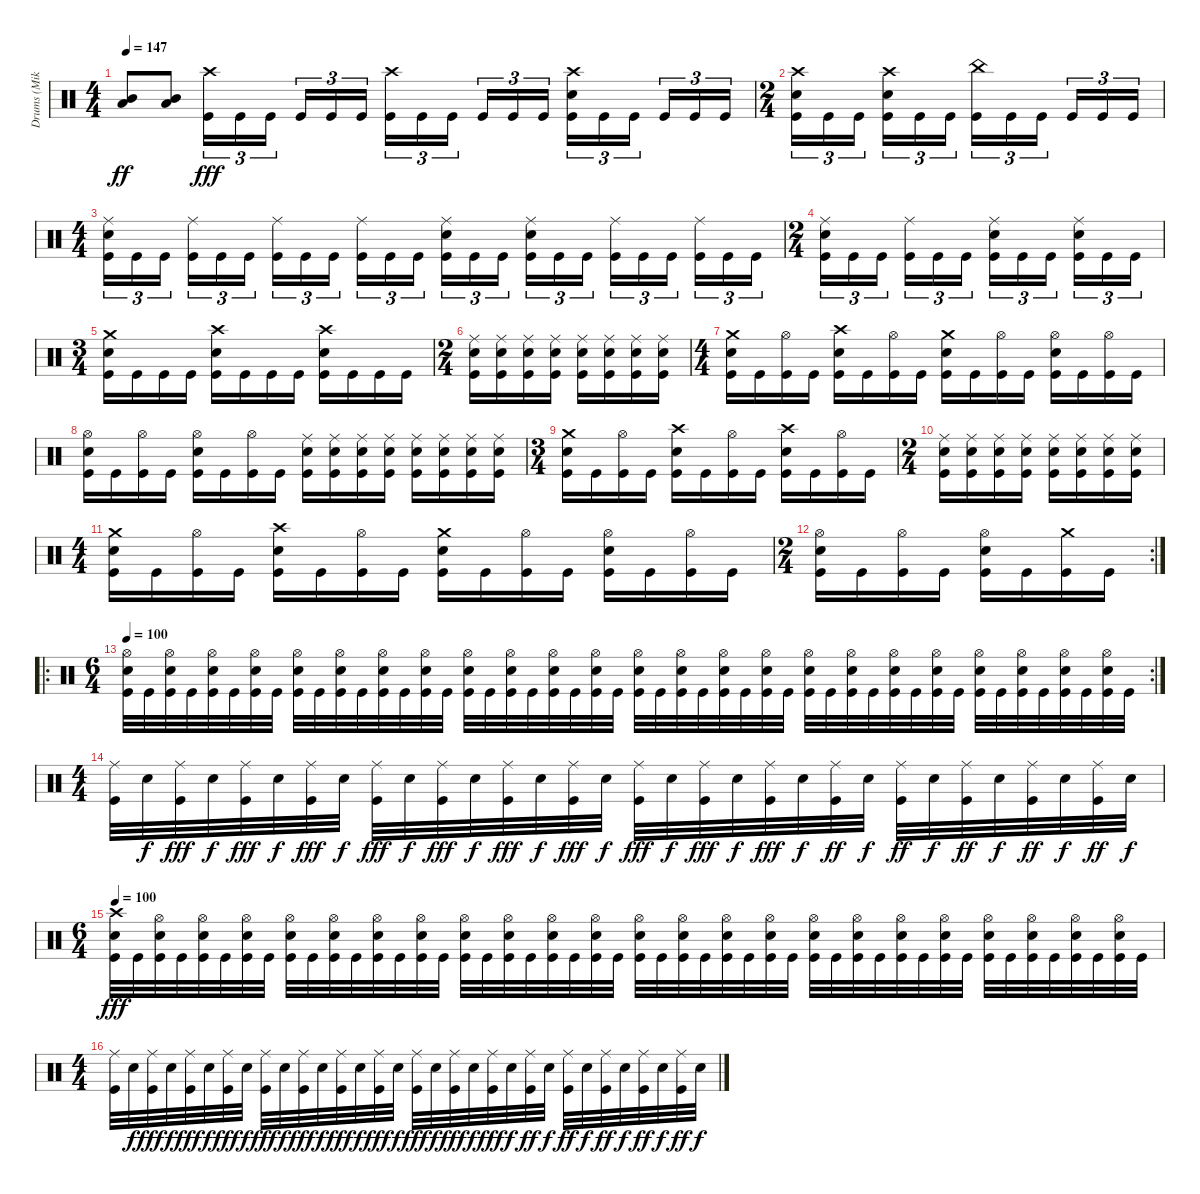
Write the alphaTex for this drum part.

\track ("Drums (Mike)" "Drums (Mik") {instrument percussion}
\staff {score}
\articulation defaults
\ts (4 4)
\tempo 147
\clef neutral
\ks c
("Low Tom (hit)" "Mid Tom (hit)").8{dy ff} ("Low Tom (hit)" "Mid Tom (hit)").8 ("Crash high (hit)" "Kick (hit)").16{tu (3 2) dy fff} "Kick (hit)".16{tu (3 2)} "Kick (hit)".16{tu (3 2)} "Kick (hit)".16{tu (3 2)} "Kick (hit)".16{tu (3 2)} "Kick (hit)".16{tu (3 2)} ("Crash high (hit)" "Kick (hit)").16{tu (3 2)} "Kick (hit)".16{tu (3 2)} "Kick (hit)".16{tu (3 2)} "Kick (hit)".16{tu (3 2)} "Kick (hit)".16{tu (3 2)} "Kick (hit)".16{tu (3 2)} ("Crash high (hit)" "Electric Snare (hit)" "Kick (hit)").16{tu (3 2)} "Kick (hit)".16{tu (3 2)} "Kick (hit)".16{tu (3 2)} "Kick (hit)".16{tu (3 2)} "Kick (hit)".16{tu (3 2)} "Kick (hit)".16{tu (3 2)} |
\ts (2 4)
("Crash high (hit)" "Electric Snare (hit)" "Kick (hit)").16{tu (3 2)} "Kick (hit)".16{tu (3 2)} "Kick (hit)".16{tu (3 2)} ("Crash high (hit)" "Electric Snare (hit)" "Kick (hit)").16{tu (3 2)} "Kick (hit)".16{tu (3 2)} "Kick (hit)".16{tu (3 2)} ("China (hit)" "Kick (hit)").16{tu (3 2)} "Kick (hit)".16{tu (3 2)} "Kick (hit)".16{tu (3 2)} "Kick (hit)".16{tu (3 2)} "Kick (hit)".16{tu (3 2)} "Kick (hit)".16{tu (3 2)} |
\ts (4 4)
("Ride (middle)" "Electric Snare (hit)" "Kick (hit)").16{tu (3 2)} "Kick (hit)".16{tu (3 2)} "Kick (hit)".16{tu (3 2)} ("Ride (middle)" "Kick (hit)").16{tu (3 2)} "Kick (hit)".16{tu (3 2)} "Kick (hit)".16{tu (3 2)} ("Ride (middle)" "Kick (hit)").16{tu (3 2)} "Kick (hit)".16{tu (3 2)} "Kick (hit)".16{tu (3 2)} ("Ride (middle)" "Kick (hit)").16{tu (3 2)} "Kick (hit)".16{tu (3 2)} "Kick (hit)".16{tu (3 2)} ("Ride (middle)" "Electric Snare (hit)" "Kick (hit)").16{tu (3 2)} "Kick (hit)".16{tu (3 2)} "Kick (hit)".16{tu (3 2)} ("Ride (middle)" "Electric Snare (hit)" "Kick (hit)").16{tu (3 2)} "Kick (hit)".16{tu (3 2)} "Kick (hit)".16{tu (3 2)} ("Ride (middle)" "Kick (hit)").16{tu (3 2)} "Kick (hit)".16{tu (3 2)} "Kick (hit)".16{tu (3 2)} ("Ride (middle)" "Kick (hit)").16{tu (3 2)} "Kick (hit)".16{tu (3 2)} "Kick (hit)".16{tu (3 2)} |
\ts (2 4)
("Ride (middle)" "Electric Snare (hit)" "Kick (hit)").16{tu (3 2)} "Kick (hit)".16{tu (3 2)} "Kick (hit)".16{tu (3 2)} ("Ride (middle)" "Kick (hit)").16{tu (3 2)} "Kick (hit)".16{tu (3 2)} "Kick (hit)".16{tu (3 2)} ("Ride (middle)" "Electric Snare (hit)" "Kick (hit)").16{tu (3 2)} "Kick (hit)".16{tu (3 2)} "Kick (hit)".16{tu (3 2)} ("Ride (middle)" "Electric Snare (hit)" "Kick (hit)").16{tu (3 2)} "Kick (hit)".16{tu (3 2)} "Kick (hit)".16{tu (3 2)} |
\ts (3 4)
("Crash medium (hit)" "Electric Snare (hit)" "Kick (hit)").16 "Kick (hit)".16 "Kick (hit)".16 "Kick (hit)".16 ("Crash high (hit)" "Electric Snare (hit)" "Kick (hit)").16 "Kick (hit)".16 "Kick (hit)".16 "Kick (hit)".16 ("Crash high (hit)" "Electric Snare (hit)" "Kick (hit)").16 "Kick (hit)".16 "Kick (hit)".16 "Kick (hit)".16 |
\ts (2 4)
("Ride (middle)" "Electric Snare (hit)" "Kick (hit)").16 ("Ride (middle)" "Electric Snare (hit)" "Kick (hit)").16 ("Ride (middle)" "Electric Snare (hit)" "Kick (hit)").16 ("Ride (middle)" "Electric Snare (hit)" "Kick (hit)").16 ("Ride (middle)" "Electric Snare (hit)" "Kick (hit)").16 ("Ride (middle)" "Electric Snare (hit)" "Kick (hit)").16 ("Ride (middle)" "Electric Snare (hit)" "Kick (hit)").16 ("Ride (middle)" "Electric Snare (hit)" "Kick (hit)").16 |
\ts (4 4)
("Crash medium (hit)" "Electric Snare (hit)" "Kick (hit)").16 "Kick (hit)".16 ("Hi-Hat (open)" "Kick (hit)").16 "Kick (hit)".16 ("Crash high (hit)" "Electric Snare (hit)" "Kick (hit)").16 "Kick (hit)".16 ("Hi-Hat (open)" "Kick (hit)").16 "Kick (hit)".16 ("Crash medium (hit)" "Electric Snare (hit)" "Kick (hit)").16 "Kick (hit)".16 ("Hi-Hat (open)" "Kick (hit)").16 "Kick (hit)".16 ("Hi-Hat (open)" "Electric Snare (hit)" "Kick (hit)").16 "Kick (hit)".16 ("Hi-Hat (open)" "Kick (hit)").16 "Kick (hit)".16 |
("Hi-Hat (open)" "Electric Snare (hit)" "Kick (hit)").16 "Kick (hit)".16 ("Hi-Hat (open)" "Kick (hit)").16 "Kick (hit)".16 ("Hi-Hat (open)" "Electric Snare (hit)" "Kick (hit)").16 "Kick (hit)".16 ("Hi-Hat (open)" "Kick (hit)").16 "Kick (hit)".16 ("Ride (middle)" "Electric Snare (hit)" "Kick (hit)").16 ("Ride (middle)" "Electric Snare (hit)" "Kick (hit)").16 ("Ride (middle)" "Electric Snare (hit)" "Kick (hit)").16 ("Ride (middle)" "Electric Snare (hit)" "Kick (hit)").16 ("Ride (middle)" "Electric Snare (hit)" "Kick (hit)").16 ("Ride (middle)" "Electric Snare (hit)" "Kick (hit)").16 ("Ride (middle)" "Electric Snare (hit)" "Kick (hit)").16 ("Ride (middle)" "Electric Snare (hit)" "Kick (hit)").16 |
\ts (3 4)
("Crash medium (hit)" "Electric Snare (hit)" "Kick (hit)").16 "Kick (hit)".16 ("Hi-Hat (open)" "Kick (hit)").16 "Kick (hit)".16 ("Crash high (hit)" "Electric Snare (hit)" "Kick (hit)").16 "Kick (hit)".16 ("Hi-Hat (open)" "Kick (hit)").16 "Kick (hit)".16 ("Crash high (hit)" "Electric Snare (hit)" "Kick (hit)").16 "Kick (hit)".16 ("Hi-Hat (open)" "Kick (hit)").16 "Kick (hit)".16 |
\ts (2 4)
("Ride (middle)" "Electric Snare (hit)" "Kick (hit)").16 ("Ride (middle)" "Electric Snare (hit)" "Kick (hit)").16 ("Ride (middle)" "Electric Snare (hit)" "Kick (hit)").16 ("Ride (middle)" "Electric Snare (hit)" "Kick (hit)").16 ("Ride (middle)" "Electric Snare (hit)" "Kick (hit)").16 ("Ride (middle)" "Electric Snare (hit)" "Kick (hit)").16 ("Ride (middle)" "Electric Snare (hit)" "Kick (hit)").16 ("Ride (middle)" "Electric Snare (hit)" "Kick (hit)").16 |
\ts (4 4)
("Crash medium (hit)" "Electric Snare (hit)" "Kick (hit)").16 "Kick (hit)".16 ("Hi-Hat (open)" "Kick (hit)").16 "Kick (hit)".16 ("Crash high (hit)" "Electric Snare (hit)" "Kick (hit)").16 "Kick (hit)".16 ("Hi-Hat (open)" "Kick (hit)").16 "Kick (hit)".16 ("Crash medium (hit)" "Electric Snare (hit)" "Kick (hit)").16 "Kick (hit)".16 ("Hi-Hat (open)" "Kick (hit)").16 "Kick (hit)".16 ("Hi-Hat (open)" "Electric Snare (hit)" "Kick (hit)").16 "Kick (hit)".16 ("Hi-Hat (open)" "Kick (hit)").16 "Kick (hit)".16 |
\rc 2
\ts (2 4)
("Hi-Hat (open)" "Electric Snare (hit)" "Kick (hit)").16 "Kick (hit)".16 ("Hi-Hat (open)" "Kick (hit)").16 "Kick (hit)".16 ("Hi-Hat (open)" "Electric Snare (hit)" "Kick (hit)").16 "Kick (hit)".16 ("Crash medium (hit)" "Kick (hit)").16 "Kick (hit)".16 |
\ro
\rc 2
\ts (6 4)
\tempo 100
("Hi-Hat (open)" "Electric Snare (hit)" "Kick (hit)").32 "Kick (hit)".32 ("Hi-Hat (open)" "Electric Snare (hit)" "Kick (hit)").32 "Kick (hit)".32 ("Hi-Hat (open)" "Electric Snare (hit)" "Kick (hit)").32 "Kick (hit)".32 ("Hi-Hat (open)" "Electric Snare (hit)" "Kick (hit)").32 "Kick (hit)".32 ("Hi-Hat (open)" "Electric Snare (hit)" "Kick (hit)").32 "Kick (hit)".32 ("Hi-Hat (open)" "Electric Snare (hit)" "Kick (hit)").32 "Kick (hit)".32 ("Hi-Hat (open)" "Electric Snare (hit)" "Kick (hit)").32 "Kick (hit)".32 ("Hi-Hat (open)" "Electric Snare (hit)" "Kick (hit)").32 "Kick (hit)".32 ("Hi-Hat (open)" "Electric Snare (hit)" "Kick (hit)").32 "Kick (hit)".32 ("Hi-Hat (open)" "Electric Snare (hit)" "Kick (hit)").32 "Kick (hit)".32 ("Hi-Hat (open)" "Electric Snare (hit)" "Kick (hit)").32 "Kick (hit)".32 ("Hi-Hat (open)" "Electric Snare (hit)" "Kick (hit)").32 "Kick (hit)".32 ("Hi-Hat (open)" "Electric Snare (hit)" "Kick (hit)").32 "Kick (hit)".32 ("Hi-Hat (open)" "Electric Snare (hit)" "Kick (hit)").32 "Kick (hit)".32 ("Hi-Hat (open)" "Electric Snare (hit)" "Kick (hit)").32 "Kick (hit)".32 ("Hi-Hat (open)" "Electric Snare (hit)" "Kick (hit)").32 "Kick (hit)".32 ("Hi-Hat (open)" "Electric Snare (hit)" "Kick (hit)").32 "Kick (hit)".32 ("Hi-Hat (open)" "Electric Snare (hit)" "Kick (hit)").32 "Kick (hit)".32 ("Hi-Hat (open)" "Electric Snare (hit)" "Kick (hit)").32 "Kick (hit)".32 ("Hi-Hat (open)" "Electric Snare (hit)" "Kick (hit)").32 "Kick (hit)".32 ("Hi-Hat (open)" "Electric Snare (hit)" "Kick (hit)").32 "Kick (hit)".32 ("Hi-Hat (open)" "Electric Snare (hit)" "Kick (hit)").32 "Kick (hit)".32 ("Hi-Hat (open)" "Electric Snare (hit)" "Kick (hit)").32 "Kick (hit)".32 ("Hi-Hat (open)" "Electric Snare (hit)" "Kick (hit)").32 "Kick (hit)".32 |
\ts (4 4)
("Ride (middle)" "Kick (hit)").32 "Electric Snare (hit)".32{dy f} ("Ride (middle)" "Kick (hit)").32{dy fff} "Electric Snare (hit)".32{dy f} ("Ride (middle)" "Kick (hit)").32{dy fff} "Electric Snare (hit)".32{dy f} ("Ride (middle)" "Kick (hit)").32{dy fff} "Electric Snare (hit)".32{dy f} ("Ride (middle)" "Kick (hit)").32{dy fff} "Electric Snare (hit)".32{dy f} ("Ride (middle)" "Kick (hit)").32{dy fff} "Electric Snare (hit)".32{dy f} ("Ride (middle)" "Kick (hit)").32{dy fff} "Electric Snare (hit)".32{dy f} ("Ride (middle)" "Kick (hit)").32{dy fff} "Electric Snare (hit)".32{dy f} ("Ride (middle)" "Kick (hit)").32{dy fff} "Electric Snare (hit)".32{dy f} ("Ride (middle)" "Kick (hit)").32{dy fff} "Electric Snare (hit)".32{dy f} ("Ride (middle)" "Kick (hit)").32{dy fff} "Electric Snare (hit)".32{dy f} ("Ride (middle)" "Kick (hit)").32{dy ff} "Electric Snare (hit)".32{dy f} ("Ride (middle)" "Kick (hit)").32{dy ff} "Electric Snare (hit)".32{dy f} ("Ride (middle)" "Kick (hit)").32{dy ff} "Electric Snare (hit)".32{dy f} ("Ride (middle)" "Kick (hit)").32{dy ff} "Electric Snare (hit)".32{dy f} ("Ride (middle)" "Kick (hit)").32{dy ff} "Electric Snare (hit)".32{dy f} |
\ts (6 4)
\tempo 100
("Crash high (hit)" "Electric Snare (hit)" "Kick (hit)").32{dy fff} "Kick (hit)".32 ("Hi-Hat (open)" "Electric Snare (hit)" "Kick (hit)").32 "Kick (hit)".32 ("Hi-Hat (open)" "Electric Snare (hit)" "Kick (hit)").32 "Kick (hit)".32 ("Hi-Hat (open)" "Electric Snare (hit)" "Kick (hit)").32 "Kick (hit)".32 ("Hi-Hat (open)" "Electric Snare (hit)" "Kick (hit)").32 "Kick (hit)".32 ("Hi-Hat (open)" "Electric Snare (hit)" "Kick (hit)").32 "Kick (hit)".32 ("Hi-Hat (open)" "Electric Snare (hit)" "Kick (hit)").32 "Kick (hit)".32 ("Hi-Hat (open)" "Electric Snare (hit)" "Kick (hit)").32 "Kick (hit)".32 ("Hi-Hat (open)" "Electric Snare (hit)" "Kick (hit)").32 "Kick (hit)".32 ("Hi-Hat (open)" "Electric Snare (hit)" "Kick (hit)").32 "Kick (hit)".32 ("Hi-Hat (open)" "Electric Snare (hit)" "Kick (hit)").32 "Kick (hit)".32 ("Hi-Hat (open)" "Electric Snare (hit)" "Kick (hit)").32 "Kick (hit)".32 ("Hi-Hat (open)" "Electric Snare (hit)" "Kick (hit)").32 "Kick (hit)".32 ("Hi-Hat (open)" "Electric Snare (hit)" "Kick (hit)").32 "Kick (hit)".32 ("Hi-Hat (open)" "Electric Snare (hit)" "Kick (hit)").32 "Kick (hit)".32 ("Hi-Hat (open)" "Electric Snare (hit)" "Kick (hit)").32 "Kick (hit)".32 ("Hi-Hat (open)" "Electric Snare (hit)" "Kick (hit)").32 "Kick (hit)".32 ("Hi-Hat (open)" "Electric Snare (hit)" "Kick (hit)").32 "Kick (hit)".32 ("Hi-Hat (open)" "Electric Snare (hit)" "Kick (hit)").32 "Kick (hit)".32 ("Hi-Hat (open)" "Electric Snare (hit)" "Kick (hit)").32 "Kick (hit)".32 ("Hi-Hat (open)" "Electric Snare (hit)" "Kick (hit)").32 "Kick (hit)".32 ("Hi-Hat (open)" "Electric Snare (hit)" "Kick (hit)").32 "Kick (hit)".32 ("Hi-Hat (open)" "Electric Snare (hit)" "Kick (hit)").32 "Kick (hit)".32 ("Hi-Hat (open)" "Electric Snare (hit)" "Kick (hit)").32 "Kick (hit)".32 |
\ts (4 4)
("Ride (middle)" "Kick (hit)").32 "Electric Snare (hit)".32{dy f} ("Ride (middle)" "Kick (hit)").32{dy fff} "Electric Snare (hit)".32{dy f} ("Ride (middle)" "Kick (hit)").32{dy fff} "Electric Snare (hit)".32{dy f} ("Ride (middle)" "Kick (hit)").32{dy fff} "Electric Snare (hit)".32{dy f} ("Ride (middle)" "Kick (hit)").32{dy fff} "Electric Snare (hit)".32{dy f} ("Ride (middle)" "Kick (hit)").32{dy fff} "Electric Snare (hit)".32{dy f} ("Ride (middle)" "Kick (hit)").32{dy fff} "Electric Snare (hit)".32{dy f} ("Ride (middle)" "Kick (hit)").32{dy fff} "Electric Snare (hit)".32{dy f} ("Ride (middle)" "Kick (hit)").32{dy fff} "Electric Snare (hit)".32{dy f} ("Ride (middle)" "Kick (hit)").32{dy fff} "Electric Snare (hit)".32{dy f} ("Ride (middle)" "Kick (hit)").32{dy fff} "Electric Snare (hit)".32{dy f} ("Ride (middle)" "Kick (hit)").32{dy ff} "Electric Snare (hit)".32{dy f} ("Ride (middle)" "Kick (hit)").32{dy ff} "Electric Snare (hit)".32{dy f} ("Ride (middle)" "Kick (hit)").32{dy ff} "Electric Snare (hit)".32{dy f} ("Ride (middle)" "Kick (hit)").32{dy ff} "Electric Snare (hit)".32{dy f} ("Ride (middle)" "Kick (hit)").32{dy ff} "Electric Snare (hit)".32{dy f}
